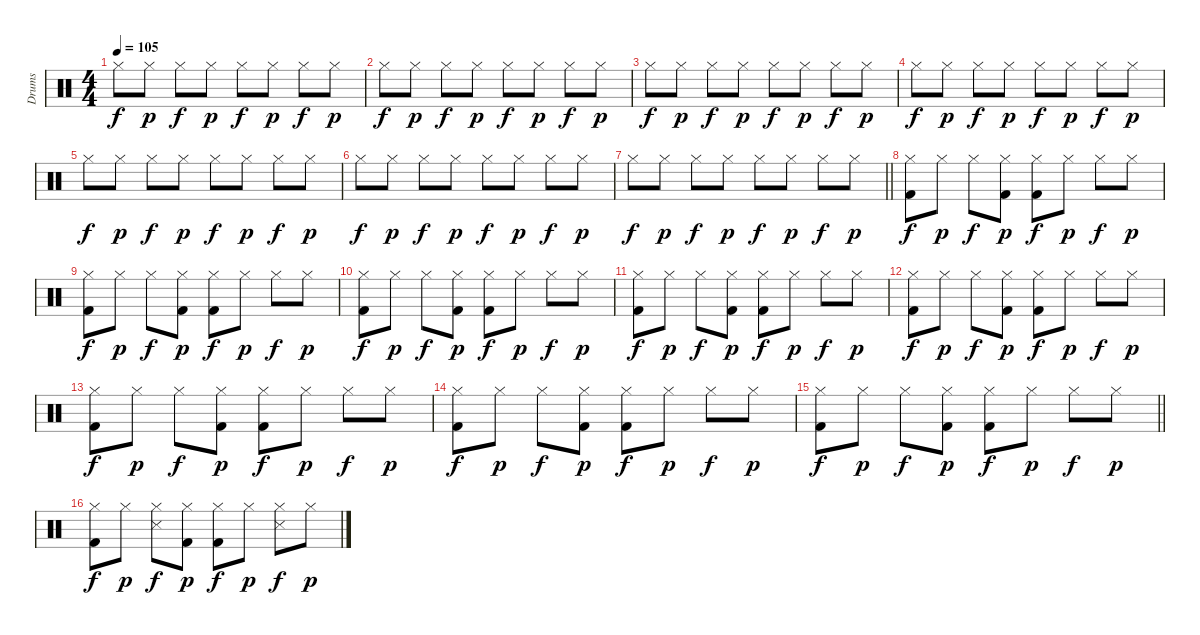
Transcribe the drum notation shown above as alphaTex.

\track ("Drums" "Drums") {instrument percussion}
\staff {score}
\articulation defaults
\ts (4 4)
\tempo 105
\clef neutral
\ks c "Hi-Hat (closed)".8{dy f} "Hi-Hat (closed)".8{dy p} "Hi-Hat (closed)".8{dy f} "Hi-Hat (closed)".8{dy p} "Hi-Hat (closed)".8{dy f} "Hi-Hat (closed)".8{dy p} "Hi-Hat (closed)".8{dy f} "Hi-Hat (closed)".8{dy p}
|
"Hi-Hat (closed)".8{dy f} "Hi-Hat (closed)".8{dy p} "Hi-Hat (closed)".8{dy f} "Hi-Hat (closed)".8{dy p} "Hi-Hat (closed)".8{dy f} "Hi-Hat (closed)".8{dy p} "Hi-Hat (closed)".8{dy f} "Hi-Hat (closed)".8{dy p} |
"Hi-Hat (closed)".8{dy f} "Hi-Hat (closed)".8{dy p} "Hi-Hat (closed)".8{dy f} "Hi-Hat (closed)".8{dy p} "Hi-Hat (closed)".8{dy f} "Hi-Hat (closed)".8{dy p} "Hi-Hat (closed)".8{dy f} "Hi-Hat (closed)".8{dy p} |
"Hi-Hat (closed)".8{dy f} "Hi-Hat (closed)".8{dy p} "Hi-Hat (closed)".8{dy f} "Hi-Hat (closed)".8{dy p} "Hi-Hat (closed)".8{dy f} "Hi-Hat (closed)".8{dy p} "Hi-Hat (closed)".8{dy f} "Hi-Hat (closed)".8{dy p} |
"Hi-Hat (closed)".8{dy f} "Hi-Hat (closed)".8{dy p} "Hi-Hat (closed)".8{dy f} "Hi-Hat (closed)".8{dy p} "Hi-Hat (closed)".8{dy f} "Hi-Hat (closed)".8{dy p} "Hi-Hat (closed)".8{dy f} "Hi-Hat (closed)".8{dy p} |
"Hi-Hat (closed)".8{dy f} "Hi-Hat (closed)".8{dy p} "Hi-Hat (closed)".8{dy f} "Hi-Hat (closed)".8{dy p} "Hi-Hat (closed)".8{dy f} "Hi-Hat (closed)".8{dy p} "Hi-Hat (closed)".8{dy f} "Hi-Hat (closed)".8{dy p} |
\barLineRight lightlight "Hi-Hat (closed)".8{dy f} "Hi-Hat (closed)".8{dy p} "Hi-Hat (closed)".8{dy f} "Hi-Hat (closed)".8{dy p} "Hi-Hat (closed)".8{dy f} "Hi-Hat (closed)".8{dy p} "Hi-Hat (closed)".8{dy f} "Hi-Hat (closed)".8{dy p}
|
("Kick (hit) 2" "Hi-Hat (closed)").8{dy f} "Hi-Hat (closed)".8{dy p} "Hi-Hat (closed)".8{dy f} ("Kick (hit) 2" "Hi-Hat (closed)").8{dy p} ("Kick (hit) 2" "Hi-Hat (closed)").8{dy f} "Hi-Hat (closed)".8{dy p} "Hi-Hat (closed)".8{dy f} "Hi-Hat (closed)".8{dy p} |
("Kick (hit) 2" "Hi-Hat (closed)").8{dy f} "Hi-Hat (closed)".8{dy p} "Hi-Hat (closed)".8{dy f} ("Kick (hit) 2" "Hi-Hat (closed)").8{dy p} ("Kick (hit) 2" "Hi-Hat (closed)").8{dy f} "Hi-Hat (closed)".8{dy p} "Hi-Hat (closed)".8{dy f} "Hi-Hat (closed)".8{dy p} |
("Kick (hit) 2" "Hi-Hat (closed)").8{dy f} "Hi-Hat (closed)".8{dy p} "Hi-Hat (closed)".8{dy f} ("Kick (hit) 2" "Hi-Hat (closed)").8{dy p} ("Kick (hit) 2" "Hi-Hat (closed)").8{dy f} "Hi-Hat (closed)".8{dy p} "Hi-Hat (closed)".8{dy f} "Hi-Hat (closed)".8{dy p} |
("Kick (hit) 2" "Hi-Hat (closed)").8{dy f} "Hi-Hat (closed)".8{dy p} "Hi-Hat (closed)".8{dy f} ("Kick (hit) 2" "Hi-Hat (closed)").8{dy p} ("Kick (hit) 2" "Hi-Hat (closed)").8{dy f} "Hi-Hat (closed)".8{dy p} "Hi-Hat (closed)".8{dy f} "Hi-Hat (closed)".8{dy p} |
("Kick (hit) 2" "Hi-Hat (closed)").8{dy f} "Hi-Hat (closed)".8{dy p} "Hi-Hat (closed)".8{dy f} ("Kick (hit) 2" "Hi-Hat (closed)").8{dy p} ("Kick (hit) 2" "Hi-Hat (closed)").8{dy f} "Hi-Hat (closed)".8{dy p} "Hi-Hat (closed)".8{dy f} "Hi-Hat (closed)".8{dy p} |
("Kick (hit) 2" "Hi-Hat (closed)").8{dy f} "Hi-Hat (closed)".8{dy p} "Hi-Hat (closed)".8{dy f} ("Kick (hit) 2" "Hi-Hat (closed)").8{dy p} ("Kick (hit) 2" "Hi-Hat (closed)").8{dy f} "Hi-Hat (closed)".8{dy p} "Hi-Hat (closed)".8{dy f} "Hi-Hat (closed)".8{dy p} |
("Kick (hit) 2" "Hi-Hat (closed)").8{dy f} "Hi-Hat (closed)".8{dy p} "Hi-Hat (closed)".8{dy f} ("Kick (hit) 2" "Hi-Hat (closed)").8{dy p} ("Kick (hit) 2" "Hi-Hat (closed)").8{dy f} "Hi-Hat (closed)".8{dy p} "Hi-Hat (closed)".8{dy f} "Hi-Hat (closed)".8{dy p} |
\barLineRight lightlight
("Kick (hit) 2" "Hi-Hat (closed)").8{dy f} "Hi-Hat (closed)".8{dy p} "Hi-Hat (closed)".8{dy f} ("Kick (hit) 2" "Hi-Hat (closed)").8{dy p} ("Kick (hit) 2" "Hi-Hat (closed)").8{dy f} "Hi-Hat (closed)".8{dy p} "Hi-Hat (closed)".8{dy f} "Hi-Hat (closed)".8{dy p} |
("Kick (hit) 2" "Hi-Hat (closed)").8{dy f} "Hi-Hat (closed)".8{dy p} ("Metronome (hit)" "Hi-Hat (closed)").8{dy f} ("Kick (hit) 2" "Hi-Hat (closed)").8{dy p} ("Kick (hit) 2" "Hi-Hat (closed)").8{dy f} "Hi-Hat (closed)".8{dy p} ("Metronome (hit)" "Hi-Hat (closed)").8{dy f} "Hi-Hat (closed)".8{dy p}
